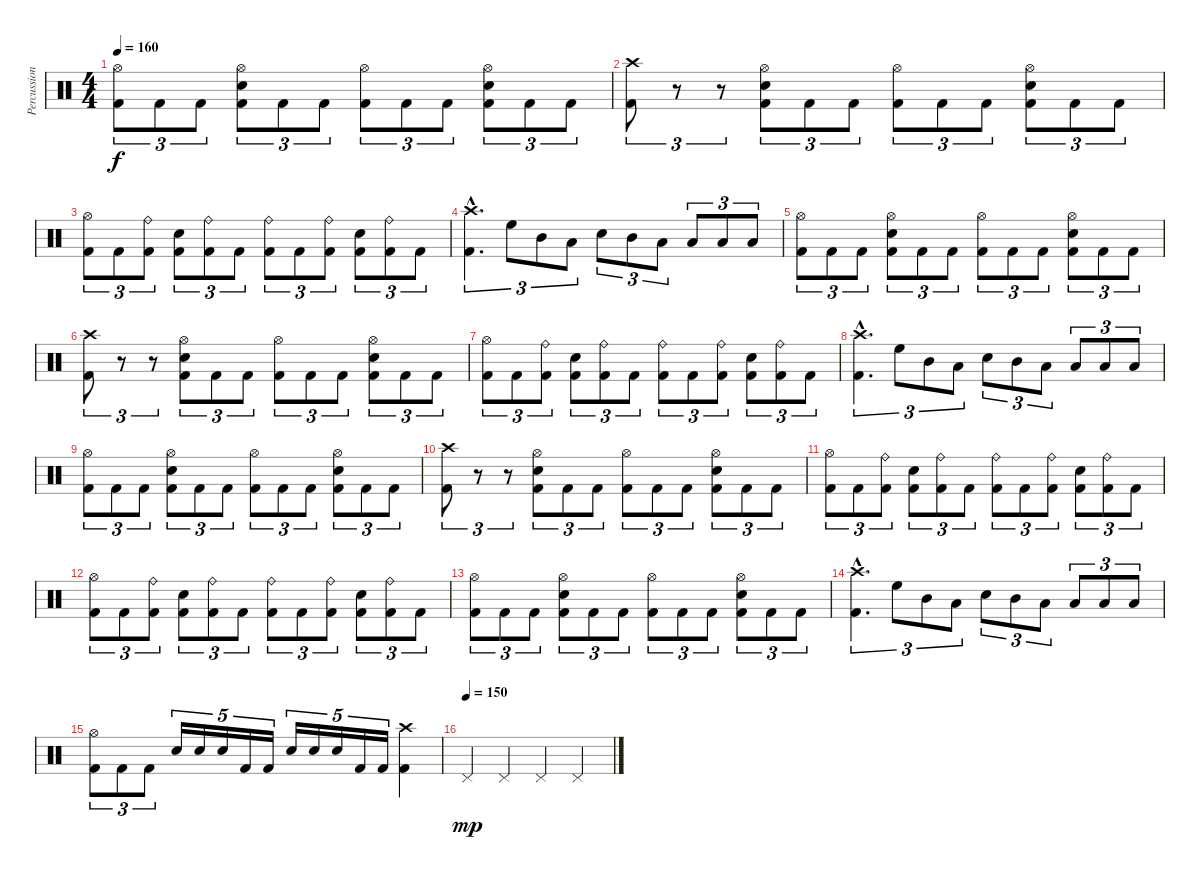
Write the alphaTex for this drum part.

\track ("Percussion" "Percussion") {instrument percussion}
\staff {score}
\articulation defaults
\ts (4 4)
\tempo 160
\clef neutral
\ks c
("Hi-Hat (open)" "Kick (hit) 2").8{tu (3 2) dy f} "Kick (hit) 2".8{tu (3 2)} "Kick (hit) 2".8{tu (3 2)} ("Hi-Hat (open)" "Electric Snare (hit)" "Kick (hit) 2").8{tu (3 2)} "Kick (hit) 2".8{tu (3 2)} "Kick (hit) 2".8{tu (3 2)} ("Hi-Hat (open)" "Kick (hit) 2").8{tu (3 2)} "Kick (hit) 2".8{tu (3 2)} "Kick (hit) 2".8{tu (3 2)} ("Hi-Hat (open)" "Electric Snare (hit)" "Kick (hit) 2").8{tu (3 2)} "Kick (hit) 2".8{tu (3 2)} "Kick (hit) 2".8{tu (3 2)} |
("Crash high (hit)" "Kick (hit) 2").8{tu (3 2)} r.8{tu (3 2)} r.8{tu (3 2)} ("Hi-Hat (open)" "Electric Snare (hit)" "Kick (hit) 2").8{tu (3 2)} "Kick (hit) 2".8{tu (3 2)} "Kick (hit) 2".8{tu (3 2)} ("Hi-Hat (open)" "Kick (hit) 2").8{tu (3 2)} "Kick (hit) 2".8{tu (3 2)} "Kick (hit) 2".8{tu (3 2)} ("Hi-Hat (open)" "Electric Snare (hit)" "Kick (hit) 2").8{tu (3 2)} "Kick (hit) 2".8{tu (3 2)} "Kick (hit) 2".8{tu (3 2)} |
("Hi-Hat (open)" "Kick (hit) 2").8{tu (3 2)} "Kick (hit) 2".8{tu (3 2)} ("Ride (bell)" "Kick (hit) 2").8{tu (3 2)} ("Electric Snare (hit)" "Kick (hit) 2").8{tu (3 2)} ("Ride (bell)" "Kick (hit) 2").8{tu (3 2)} "Kick (hit) 2".8{tu (3 2)} ("Ride (bell)" "Kick (hit) 2").8{tu (3 2)} "Kick (hit) 2".8{tu (3 2)} ("Ride (bell)" "Kick (hit) 2").8{tu (3 2)} ("Electric Snare (hit)" "Kick (hit) 2").8{tu (3 2)} ("Ride (bell)" "Kick (hit) 2").8{tu (3 2)} "Kick (hit) 2".8{tu (3 2)} |
("Crash high (hit)"{hac} "Kick (hit) 2"{hac}).4{d tu (3 2)} "High Floor Tom (hit)".8{tu (3 2)} "Mid Tom (hit)".8{tu (3 2)} "Low Tom (hit)".8{tu (3 2)} "Electric Snare (hit)".8{tu (3 2)} "Mid Tom (hit)".8{tu (3 2)} "Low Tom (hit)".8{tu (3 2)} "Low Floor Tom (hit)".8{tu (3 2)} "Low Tom (hit)".8{tu (3 2)} "Low Floor Tom (hit)".8{tu (3 2)} |
("Hi-Hat (open)" "Kick (hit) 2").8{tu (3 2)} "Kick (hit) 2".8{tu (3 2)} "Kick (hit) 2".8{tu (3 2)} ("Hi-Hat (open)" "Electric Snare (hit)" "Kick (hit) 2").8{tu (3 2)} "Kick (hit) 2".8{tu (3 2)} "Kick (hit) 2".8{tu (3 2)} ("Hi-Hat (open)" "Kick (hit) 2").8{tu (3 2)} "Kick (hit) 2".8{tu (3 2)} "Kick (hit) 2".8{tu (3 2)} ("Hi-Hat (open)" "Electric Snare (hit)" "Kick (hit) 2").8{tu (3 2)} "Kick (hit) 2".8{tu (3 2)} "Kick (hit) 2".8{tu (3 2)} |
("Crash high (hit)" "Kick (hit) 2").8{tu (3 2)} r.8{tu (3 2)} r.8{tu (3 2)} ("Hi-Hat (open)" "Electric Snare (hit)" "Kick (hit) 2").8{tu (3 2)} "Kick (hit) 2".8{tu (3 2)} "Kick (hit) 2".8{tu (3 2)} ("Hi-Hat (open)" "Kick (hit) 2").8{tu (3 2)} "Kick (hit) 2".8{tu (3 2)} "Kick (hit) 2".8{tu (3 2)} ("Hi-Hat (open)" "Electric Snare (hit)" "Kick (hit) 2").8{tu (3 2)} "Kick (hit) 2".8{tu (3 2)} "Kick (hit) 2".8{tu (3 2)} |
("Hi-Hat (open)" "Kick (hit) 2").8{tu (3 2)} "Kick (hit) 2".8{tu (3 2)} ("Ride (bell)" "Kick (hit) 2").8{tu (3 2)} ("Electric Snare (hit)" "Kick (hit) 2").8{tu (3 2)} ("Ride (bell)" "Kick (hit) 2").8{tu (3 2)} "Kick (hit) 2".8{tu (3 2)} ("Ride (bell)" "Kick (hit) 2").8{tu (3 2)} "Kick (hit) 2".8{tu (3 2)} ("Ride (bell)" "Kick (hit) 2").8{tu (3 2)} ("Electric Snare (hit)" "Kick (hit) 2").8{tu (3 2)} ("Ride (bell)" "Kick (hit) 2").8{tu (3 2)} "Kick (hit) 2".8{tu (3 2)} |
("Crash high (hit)"{hac} "Kick (hit) 2"{hac}).4{d tu (3 2)} "High Floor Tom (hit)".8{tu (3 2)} "Mid Tom (hit)".8{tu (3 2)} "Low Tom (hit)".8{tu (3 2)} "Electric Snare (hit)".8{tu (3 2)} "Mid Tom (hit)".8{tu (3 2)} "Low Tom (hit)".8{tu (3 2)} "Low Floor Tom (hit)".8{tu (3 2)} "Low Tom (hit)".8{tu (3 2)} "Low Floor Tom (hit)".8{tu (3 2)} |
("Hi-Hat (open)" "Kick (hit) 2").8{tu (3 2)} "Kick (hit) 2".8{tu (3 2)} "Kick (hit) 2".8{tu (3 2)} ("Hi-Hat (open)" "Electric Snare (hit)" "Kick (hit) 2").8{tu (3 2)} "Kick (hit) 2".8{tu (3 2)} "Kick (hit) 2".8{tu (3 2)} ("Hi-Hat (open)" "Kick (hit) 2").8{tu (3 2)} "Kick (hit) 2".8{tu (3 2)} "Kick (hit) 2".8{tu (3 2)} ("Hi-Hat (open)" "Electric Snare (hit)" "Kick (hit) 2").8{tu (3 2)} "Kick (hit) 2".8{tu (3 2)} "Kick (hit) 2".8{tu (3 2)} |
("Crash high (hit)" "Kick (hit) 2").8{tu (3 2)} r.8{tu (3 2)} r.8{tu (3 2)} ("Hi-Hat (open)" "Electric Snare (hit)" "Kick (hit) 2").8{tu (3 2)} "Kick (hit) 2".8{tu (3 2)} "Kick (hit) 2".8{tu (3 2)} ("Hi-Hat (open)" "Kick (hit) 2").8{tu (3 2)} "Kick (hit) 2".8{tu (3 2)} "Kick (hit) 2".8{tu (3 2)} ("Hi-Hat (open)" "Electric Snare (hit)" "Kick (hit) 2").8{tu (3 2)} "Kick (hit) 2".8{tu (3 2)} "Kick (hit) 2".8{tu (3 2)} |
("Hi-Hat (open)" "Kick (hit) 2").8{tu (3 2)} "Kick (hit) 2".8{tu (3 2)} ("Ride (bell)" "Kick (hit) 2").8{tu (3 2)} ("Electric Snare (hit)" "Kick (hit) 2").8{tu (3 2)} ("Ride (bell)" "Kick (hit) 2").8{tu (3 2)} "Kick (hit) 2".8{tu (3 2)} ("Ride (bell)" "Kick (hit) 2").8{tu (3 2)} "Kick (hit) 2".8{tu (3 2)} ("Ride (bell)" "Kick (hit) 2").8{tu (3 2)} ("Electric Snare (hit)" "Kick (hit) 2").8{tu (3 2)} ("Ride (bell)" "Kick (hit) 2").8{tu (3 2)} "Kick (hit) 2".8{tu (3 2)} |
("Hi-Hat (open)" "Kick (hit) 2").8{tu (3 2)} "Kick (hit) 2".8{tu (3 2)} ("Ride (bell)" "Kick (hit) 2").8{tu (3 2)} ("Electric Snare (hit)" "Kick (hit) 2").8{tu (3 2)} ("Ride (bell)" "Kick (hit) 2").8{tu (3 2)} "Kick (hit) 2".8{tu (3 2)} ("Ride (bell)" "Kick (hit) 2").8{tu (3 2)} "Kick (hit) 2".8{tu (3 2)} ("Ride (bell)" "Kick (hit) 2").8{tu (3 2)} ("Electric Snare (hit)" "Kick (hit) 2").8{tu (3 2)} ("Ride (bell)" "Kick (hit) 2").8{tu (3 2)} "Kick (hit) 2".8{tu (3 2)} |
("Hi-Hat (open)" "Kick (hit) 2").8{tu (3 2)} "Kick (hit) 2".8{tu (3 2)} "Kick (hit) 2".8{tu (3 2)} ("Hi-Hat (open)" "Electric Snare (hit)" "Kick (hit) 2").8{tu (3 2)} "Kick (hit) 2".8{tu (3 2)} "Kick (hit) 2".8{tu (3 2)} ("Hi-Hat (open)" "Kick (hit) 2").8{tu (3 2)} "Kick (hit) 2".8{tu (3 2)} "Kick (hit) 2".8{tu (3 2)} ("Hi-Hat (open)" "Electric Snare (hit)" "Kick (hit) 2").8{tu (3 2)} "Kick (hit) 2".8{tu (3 2)} "Kick (hit) 2".8{tu (3 2)} |
("Crash high (hit)"{hac} "Kick (hit) 2"{hac}).4{d tu (3 2)} "High Floor Tom (hit)".8{tu (3 2)} "Mid Tom (hit)".8{tu (3 2)} "Low Tom (hit)".8{tu (3 2)} "Electric Snare (hit)".8{tu (3 2)} "Mid Tom (hit)".8{tu (3 2)} "Low Tom (hit)".8{tu (3 2)} "Low Floor Tom (hit)".8{tu (3 2)} "Low Tom (hit)".8{tu (3 2)} "Low Floor Tom (hit)".8{tu (3 2)} |
("Hi-Hat (open)" "Kick (hit) 2").8{tu (3 2)} "Kick (hit) 2".8{tu (3 2)} "Kick (hit) 2".8{tu (3 2)} "Electric Snare (hit)".16{tu (5 4)} "Electric Snare (hit)".16{tu (5 4)} "Electric Snare (hit)".16{tu (5 4)} "Kick (hit) 2".16{tu (5 4)} "Kick (hit) 2".16{tu (5 4)} "Electric Snare (hit)".16{tu (5 4)} "Electric Snare (hit)".16{tu (5 4)} "Electric Snare (hit)".16{tu (5 4)} "Kick (hit) 2".16{tu (5 4)} "Kick (hit) 2".16{tu (5 4)} ("Crash high (hit)" "Kick (hit) 2").4 |
\tempo (150)
"Pedal Hi-Hat (hit)".4{dy mp} "Pedal Hi-Hat (hit)".4 "Pedal Hi-Hat (hit)".4 "Pedal Hi-Hat (hit)".4
